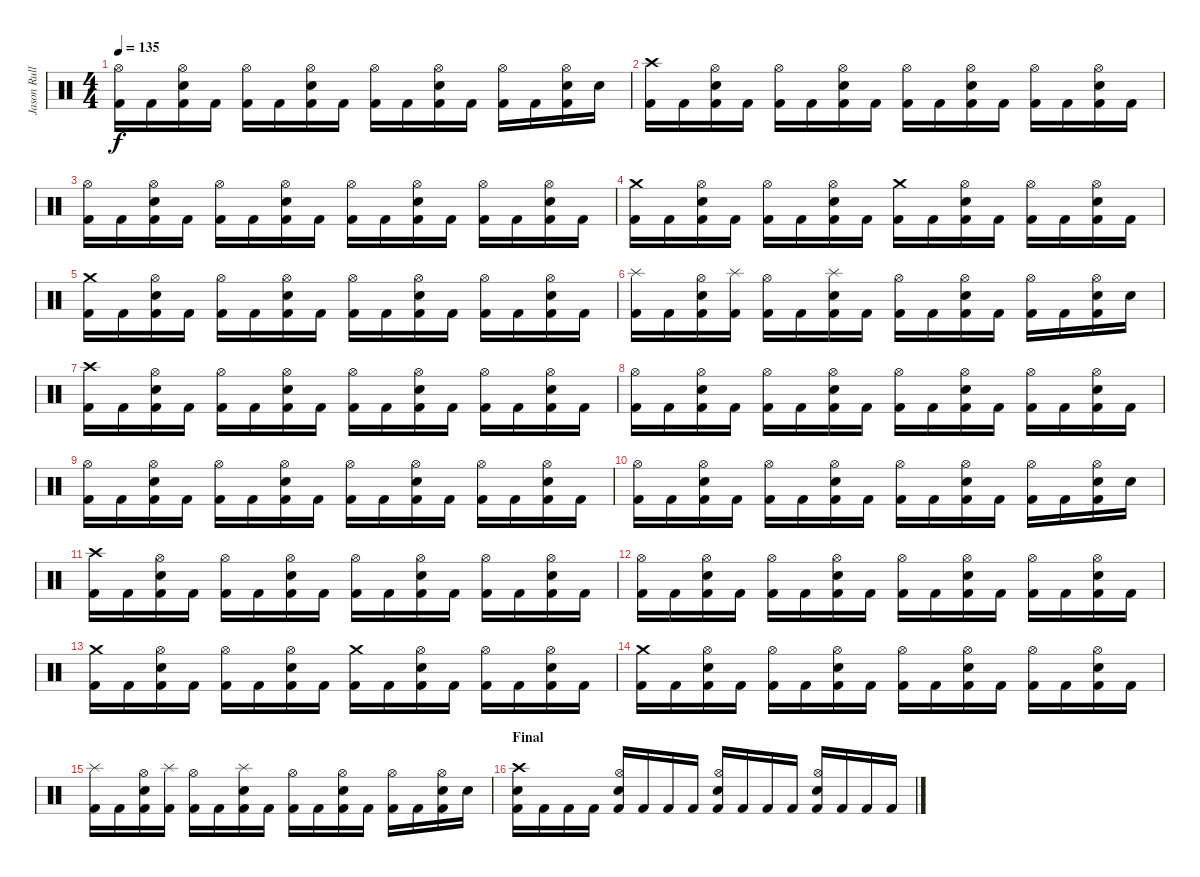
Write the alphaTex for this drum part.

\track ("Jason Rullo" "Jason Rull") {instrument percussion}
\staff {score}
\articulation defaults
\ts (4 4)
\tempo 135
\clef neutral
\ks c
("Kick (hit) 2" "Hi-Hat (open)").16{dy f} "Kick (hit) 2".16 ("Kick (hit) 2" "Electric Snare (hit)" "Hi-Hat (open)").16 "Kick (hit) 2".16 ("Kick (hit) 2" "Hi-Hat (open)").16 "Kick (hit) 2".16 ("Kick (hit) 2" "Electric Snare (hit)" "Hi-Hat (open)").16 "Kick (hit) 2".16 ("Kick (hit) 2" "Hi-Hat (open)").16 "Kick (hit) 2".16 ("Kick (hit) 2" "Electric Snare (hit)" "Hi-Hat (open)").16 "Kick (hit) 2".16 ("Kick (hit) 2" "Hi-Hat (open)").16 "Kick (hit) 2".16 ("Kick (hit) 2" "Electric Snare (hit)" "Hi-Hat (open)").16 "Electric Snare (hit)".16 |
("Kick (hit) 2" "Crash high (hit)").16 "Kick (hit) 2".16 ("Hi-Hat (open)" "Electric Snare (hit)" "Kick (hit) 2").16 "Kick (hit) 2".16 ("Hi-Hat (open)" "Kick (hit) 2").16 "Kick (hit) 2".16 ("Hi-Hat (open)" "Electric Snare (hit)" "Kick (hit) 2").16 "Kick (hit) 2".16 ("Hi-Hat (open)" "Kick (hit) 2").16 "Kick (hit) 2".16 ("Hi-Hat (open)" "Electric Snare (hit)" "Kick (hit) 2").16 "Kick (hit) 2".16 ("Hi-Hat (open)" "Kick (hit) 2").16 "Kick (hit) 2".16 ("Hi-Hat (open)" "Electric Snare (hit)" "Kick (hit) 2").16 "Kick (hit) 2".16 |
("Kick (hit) 2" "Hi-Hat (open)").16 "Kick (hit) 2".16 ("Kick (hit) 2" "Electric Snare (hit)" "Hi-Hat (open)").16 "Kick (hit) 2".16 ("Kick (hit) 2" "Hi-Hat (open)").16 "Kick (hit) 2".16 ("Kick (hit) 2" "Electric Snare (hit)" "Hi-Hat (open)").16 "Kick (hit) 2".16 ("Kick (hit) 2" "Hi-Hat (open)").16 "Kick (hit) 2".16 ("Kick (hit) 2" "Electric Snare (hit)" "Hi-Hat (open)").16 "Kick (hit) 2".16 ("Kick (hit) 2" "Hi-Hat (open)").16 "Kick (hit) 2".16 ("Kick (hit) 2" "Electric Snare (hit)" "Hi-Hat (open)").16 "Kick (hit) 2".16 |
("Crash medium (hit)" "Kick (hit) 2").16 "Kick (hit) 2".16 ("Kick (hit) 2" "Electric Snare (hit)" "Hi-Hat (open)").16 "Kick (hit) 2".16 ("Kick (hit) 2" "Hi-Hat (open)").16 "Kick (hit) 2".16 ("Kick (hit) 2" "Electric Snare (hit)" "Hi-Hat (open)").16 "Kick (hit) 2".16 ("Crash medium (hit)" "Kick (hit) 2").16 "Kick (hit) 2".16 ("Kick (hit) 2" "Electric Snare (hit)" "Hi-Hat (open)").16 "Kick (hit) 2".16 ("Kick (hit) 2" "Hi-Hat (open)").16 "Kick (hit) 2".16 ("Kick (hit) 2" "Electric Snare (hit)" "Hi-Hat (open)").16 "Kick (hit) 2".16 |
("Crash medium (hit)" "Kick (hit) 2").16 "Kick (hit) 2".16 ("Kick (hit) 2" "Electric Snare (hit)" "Hi-Hat (open)").16 "Kick (hit) 2".16 ("Kick (hit) 2" "Hi-Hat (open)").16 "Kick (hit) 2".16 ("Kick (hit) 2" "Electric Snare (hit)" "Hi-Hat (open)").16 "Kick (hit) 2".16 ("Kick (hit) 2" "Hi-Hat (open)").16 "Kick (hit) 2".16 ("Kick (hit) 2" "Electric Snare (hit)" "Hi-Hat (open)").16 "Kick (hit) 2".16 ("Kick (hit) 2" "Hi-Hat (open)").16 "Kick (hit) 2".16 ("Kick (hit) 2" "Electric Snare (hit)" "Hi-Hat (open)").16 "Kick (hit) 2".16 |
("Splash (hit)" "Kick (hit) 2").16 "Kick (hit) 2".16 ("Hi-Hat (open)" "Kick (hit) 2" "Electric Snare (hit)").16 ("Splash (hit)" "Kick (hit) 2").16 ("Hi-Hat (open)" "Kick (hit) 2").16 "Kick (hit) 2".16 ("Splash (hit)" "Kick (hit) 2" "Electric Snare (hit)").16 "Kick (hit) 2".16 ("Kick (hit) 2" "Hi-Hat (open)").16 "Kick (hit) 2".16 ("Kick (hit) 2" "Electric Snare (hit)" "Hi-Hat (open)").16 "Kick (hit) 2".16 ("Kick (hit) 2" "Hi-Hat (open)").16 "Kick (hit) 2".16 ("Kick (hit) 2" "Electric Snare (hit)" "Hi-Hat (open)").16 "Electric Snare (hit)".16 |
("Kick (hit) 2" "Crash high (hit)").16 "Kick (hit) 2".16 ("Hi-Hat (open)" "Electric Snare (hit)" "Kick (hit) 2").16 "Kick (hit) 2".16 ("Hi-Hat (open)" "Kick (hit) 2").16 "Kick (hit) 2".16 ("Hi-Hat (open)" "Electric Snare (hit)" "Kick (hit) 2").16 "Kick (hit) 2".16 ("Hi-Hat (open)" "Kick (hit) 2").16 "Kick (hit) 2".16 ("Hi-Hat (open)" "Electric Snare (hit)" "Kick (hit) 2").16 "Kick (hit) 2".16 ("Hi-Hat (open)" "Kick (hit) 2").16 "Kick (hit) 2".16 ("Hi-Hat (open)" "Electric Snare (hit)" "Kick (hit) 2").16 "Kick (hit) 2".16 |
("Kick (hit) 2" "Hi-Hat (open)").16 "Kick (hit) 2".16 ("Kick (hit) 2" "Electric Snare (hit)" "Hi-Hat (open)").16 "Kick (hit) 2".16 ("Kick (hit) 2" "Hi-Hat (open)").16 "Kick (hit) 2".16 ("Kick (hit) 2" "Electric Snare (hit)" "Hi-Hat (open)").16 "Kick (hit) 2".16 ("Kick (hit) 2" "Hi-Hat (open)").16 "Kick (hit) 2".16 ("Kick (hit) 2" "Electric Snare (hit)" "Hi-Hat (open)").16 "Kick (hit) 2".16 ("Kick (hit) 2" "Hi-Hat (open)").16 "Kick (hit) 2".16 ("Kick (hit) 2" "Electric Snare (hit)" "Hi-Hat (open)").16 "Kick (hit) 2".16 |
("Kick (hit) 2" "Hi-Hat (open)").16 "Kick (hit) 2".16 ("Kick (hit) 2" "Electric Snare (hit)" "Hi-Hat (open)").16 "Kick (hit) 2".16 ("Kick (hit) 2" "Hi-Hat (open)").16 "Kick (hit) 2".16 ("Kick (hit) 2" "Electric Snare (hit)" "Hi-Hat (open)").16 "Kick (hit) 2".16 ("Kick (hit) 2" "Hi-Hat (open)").16 "Kick (hit) 2".16 ("Kick (hit) 2" "Electric Snare (hit)" "Hi-Hat (open)").16 "Kick (hit) 2".16 ("Kick (hit) 2" "Hi-Hat (open)").16 "Kick (hit) 2".16 ("Kick (hit) 2" "Electric Snare (hit)" "Hi-Hat (open)").16 "Kick (hit) 2".16 |
("Kick (hit) 2" "Hi-Hat (open)").16 "Kick (hit) 2".16 ("Kick (hit) 2" "Electric Snare (hit)" "Hi-Hat (open)").16 "Kick (hit) 2".16 ("Kick (hit) 2" "Hi-Hat (open)").16 "Kick (hit) 2".16 ("Kick (hit) 2" "Electric Snare (hit)" "Hi-Hat (open)").16 "Kick (hit) 2".16 ("Kick (hit) 2" "Hi-Hat (open)").16 "Kick (hit) 2".16 ("Kick (hit) 2" "Electric Snare (hit)" "Hi-Hat (open)").16 "Kick (hit) 2".16 ("Kick (hit) 2" "Hi-Hat (open)").16 "Kick (hit) 2".16 ("Kick (hit) 2" "Electric Snare (hit)" "Hi-Hat (open)").16 "Electric Snare (hit)".16 |
("Kick (hit) 2" "Crash high (hit)").16 "Kick (hit) 2".16 ("Hi-Hat (open)" "Electric Snare (hit)" "Kick (hit) 2").16 "Kick (hit) 2".16 ("Hi-Hat (open)" "Kick (hit) 2").16 "Kick (hit) 2".16 ("Hi-Hat (open)" "Electric Snare (hit)" "Kick (hit) 2").16 "Kick (hit) 2".16 ("Hi-Hat (open)" "Kick (hit) 2").16 "Kick (hit) 2".16 ("Hi-Hat (open)" "Electric Snare (hit)" "Kick (hit) 2").16 "Kick (hit) 2".16 ("Hi-Hat (open)" "Kick (hit) 2").16 "Kick (hit) 2".16 ("Hi-Hat (open)" "Electric Snare (hit)" "Kick (hit) 2").16 "Kick (hit) 2".16 |
("Kick (hit) 2" "Hi-Hat (open)").16 "Kick (hit) 2".16 ("Kick (hit) 2" "Electric Snare (hit)" "Hi-Hat (open)").16 "Kick (hit) 2".16 ("Kick (hit) 2" "Hi-Hat (open)").16 "Kick (hit) 2".16 ("Kick (hit) 2" "Electric Snare (hit)" "Hi-Hat (open)").16 "Kick (hit) 2".16 ("Kick (hit) 2" "Hi-Hat (open)").16 "Kick (hit) 2".16 ("Kick (hit) 2" "Electric Snare (hit)" "Hi-Hat (open)").16 "Kick (hit) 2".16 ("Kick (hit) 2" "Hi-Hat (open)").16 "Kick (hit) 2".16 ("Kick (hit) 2" "Electric Snare (hit)" "Hi-Hat (open)").16 "Kick (hit) 2".16 |
("Crash medium (hit)" "Kick (hit) 2").16 "Kick (hit) 2".16 ("Kick (hit) 2" "Electric Snare (hit)" "Hi-Hat (open)").16 "Kick (hit) 2".16 ("Kick (hit) 2" "Hi-Hat (open)").16 "Kick (hit) 2".16 ("Kick (hit) 2" "Electric Snare (hit)" "Hi-Hat (open)").16 "Kick (hit) 2".16 ("Crash medium (hit)" "Kick (hit) 2").16 "Kick (hit) 2".16 ("Kick (hit) 2" "Electric Snare (hit)" "Hi-Hat (open)").16 "Kick (hit) 2".16 ("Kick (hit) 2" "Hi-Hat (open)").16 "Kick (hit) 2".16 ("Kick (hit) 2" "Electric Snare (hit)" "Hi-Hat (open)").16 "Kick (hit) 2".16 |
("Crash medium (hit)" "Kick (hit) 2").16 "Kick (hit) 2".16 ("Kick (hit) 2" "Electric Snare (hit)" "Hi-Hat (open)").16 "Kick (hit) 2".16 ("Kick (hit) 2" "Hi-Hat (open)").16 "Kick (hit) 2".16 ("Kick (hit) 2" "Electric Snare (hit)" "Hi-Hat (open)").16 "Kick (hit) 2".16 ("Kick (hit) 2" "Hi-Hat (open)").16 "Kick (hit) 2".16 ("Kick (hit) 2" "Electric Snare (hit)" "Hi-Hat (open)").16 "Kick (hit) 2".16 ("Kick (hit) 2" "Hi-Hat (open)").16 "Kick (hit) 2".16 ("Kick (hit) 2" "Electric Snare (hit)" "Hi-Hat (open)").16 "Kick (hit) 2".16 |
("Splash (hit)" "Kick (hit) 2").16 "Kick (hit) 2".16 ("Hi-Hat (open)" "Kick (hit) 2" "Electric Snare (hit)").16 ("Splash (hit)" "Kick (hit) 2").16 ("Hi-Hat (open)" "Kick (hit) 2").16 "Kick (hit) 2".16 ("Splash (hit)" "Kick (hit) 2" "Electric Snare (hit)").16 "Kick (hit) 2".16 ("Kick (hit) 2" "Hi-Hat (open)").16 "Kick (hit) 2".16 ("Kick (hit) 2" "Electric Snare (hit)" "Hi-Hat (open)").16 "Kick (hit) 2".16 ("Kick (hit) 2" "Hi-Hat (open)").16 "Kick (hit) 2".16 ("Kick (hit) 2" "Electric Snare (hit)" "Hi-Hat (open)").16 "Electric Snare (hit)".16 |
\section ("" "Final")
("Crash high (hit)" "Kick (hit) 2" "Electric Snare (hit)").16 "Kick (hit) 2".16 "Kick (hit) 2".16 "Kick (hit) 2".16 ("Hi-Hat (open)" "Kick (hit) 2" "Electric Snare (hit)").16 "Kick (hit) 2".16 "Kick (hit) 2".16 "Kick (hit) 2".16 ("Hi-Hat (open)" "Kick (hit) 2" "Electric Snare (hit)").16 "Kick (hit) 2".16 "Kick (hit) 2".16 "Kick (hit) 2".16 ("Hi-Hat (open)" "Kick (hit) 2" "Electric Snare (hit)").16 "Kick (hit) 2".16 "Kick (hit) 2".16 "Kick (hit) 2".16
